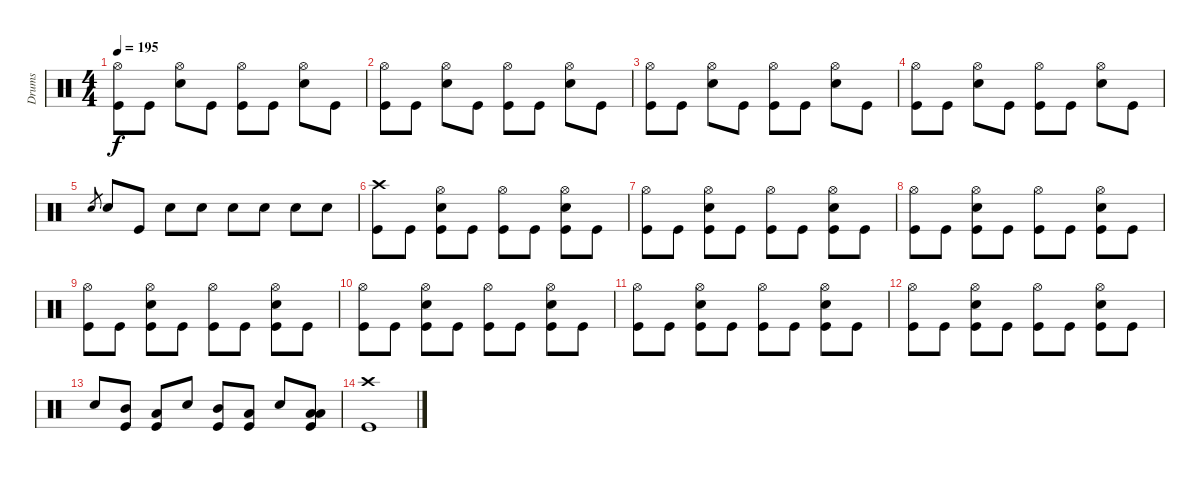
\track ("Drums" "Drums") {instrument percussion}
\staff {score}
\articulation defaults
\ts (4 4)
\tempo 195
\clef neutral
\ks c
("Hi-Hat (open)" "Kick (hit)").8{dy f} "Kick (hit)".8 ("Hi-Hat (open)" "Electric Snare (hit)").8 "Kick (hit)".8 ("Hi-Hat (open)" "Kick (hit)").8 "Kick (hit)".8 ("Hi-Hat (open)" "Electric Snare (hit)").8 "Kick (hit)".8 |
("Hi-Hat (open)" "Kick (hit)").8 "Kick (hit)".8 ("Hi-Hat (open)" "Electric Snare (hit)").8 "Kick (hit)".8 ("Hi-Hat (open)" "Kick (hit)").8 "Kick (hit)".8 ("Hi-Hat (open)" "Electric Snare (hit)").8 "Kick (hit)".8 |
("Hi-Hat (open)" "Kick (hit)").8 "Kick (hit)".8 ("Hi-Hat (open)" "Electric Snare (hit)").8 "Kick (hit)".8 ("Hi-Hat (open)" "Kick (hit)").8 "Kick (hit)".8 ("Hi-Hat (open)" "Electric Snare (hit)").8 "Kick (hit)".8 |
("Hi-Hat (open)" "Kick (hit)").8 "Kick (hit)".8 ("Hi-Hat (open)" "Electric Snare (hit)").8 "Kick (hit)".8 ("Hi-Hat (open)" "Kick (hit)").8 "Kick (hit)".8 ("Hi-Hat (open)" "Electric Snare (hit)").8 "Kick (hit)".8 |
"Electric Snare (hit)".8{gr} "Electric Snare (hit)".8 "Kick (hit)".8 "Electric Snare (hit)".8 "Electric Snare (hit)".8 "Electric Snare (hit)".8 "Electric Snare (hit)".8 "Electric Snare (hit)".8 "Electric Snare (hit)".8 |
("Crash high (hit)" "Kick (hit)").8 "Kick (hit)".8 ("Hi-Hat (open)" "Electric Snare (hit)" "Kick (hit)").8 "Kick (hit)".8 ("Hi-Hat (open)" "Kick (hit)").8 "Kick (hit)".8 ("Hi-Hat (open)" "Electric Snare (hit)" "Kick (hit)").8 "Kick (hit)".8 |
("Hi-Hat (open)" "Kick (hit)").8 "Kick (hit)".8 ("Hi-Hat (open)" "Electric Snare (hit)" "Kick (hit)").8 "Kick (hit)".8 ("Hi-Hat (open)" "Kick (hit)").8 "Kick (hit)".8 ("Hi-Hat (open)" "Electric Snare (hit)" "Kick (hit)").8 "Kick (hit)".8 |
("Hi-Hat (open)" "Kick (hit)").8 "Kick (hit)".8 ("Hi-Hat (open)" "Electric Snare (hit)" "Kick (hit)").8 "Kick (hit)".8 ("Hi-Hat (open)" "Kick (hit)").8 "Kick (hit)".8 ("Hi-Hat (open)" "Electric Snare (hit)" "Kick (hit)").8 "Kick (hit)".8 |
("Hi-Hat (open)" "Kick (hit)").8 "Kick (hit)".8 ("Hi-Hat (open)" "Electric Snare (hit)" "Kick (hit)").8 "Kick (hit)".8 ("Hi-Hat (open)" "Kick (hit)").8 "Kick (hit)".8 ("Hi-Hat (open)" "Electric Snare (hit)" "Kick (hit)").8 "Kick (hit)".8 |
("Hi-Hat (open)" "Kick (hit)").8 "Kick (hit)".8 ("Hi-Hat (open)" "Electric Snare (hit)" "Kick (hit)").8 "Kick (hit)".8 ("Hi-Hat (open)" "Kick (hit)").8 "Kick (hit)".8 ("Hi-Hat (open)" "Electric Snare (hit)" "Kick (hit)").8 "Kick (hit)".8 |
("Hi-Hat (open)" "Kick (hit)").8 "Kick (hit)".8 ("Hi-Hat (open)" "Electric Snare (hit)" "Kick (hit)").8 "Kick (hit)".8 ("Hi-Hat (open)" "Kick (hit)").8 "Kick (hit)".8 ("Hi-Hat (open)" "Electric Snare (hit)" "Kick (hit)").8 "Kick (hit)".8 |
("Hi-Hat (open)" "Kick (hit)").8 "Kick (hit)".8 ("Hi-Hat (open)" "Electric Snare (hit)" "Kick (hit)").8 "Kick (hit)".8 ("Hi-Hat (open)" "Kick (hit)").8 "Kick (hit)".8 ("Hi-Hat (open)" "Electric Snare (hit)" "Kick (hit)").8 "Kick (hit)".8 |
"Electric Snare (hit)".8 ("Mid Tom (hit)" "Kick (hit)").8 ("Low Tom (hit)" "Kick (hit)").8 "Electric Snare (hit)".8 ("Mid Tom (hit)" "Kick (hit)").8 ("Low Tom (hit)" "Kick (hit)").8 "Electric Snare (hit)".8 ("Low Tom (hit)" "Low Tom (hit)" "Kick (hit)").8 |
("Crash high (hit)" "Kick (hit)").1
